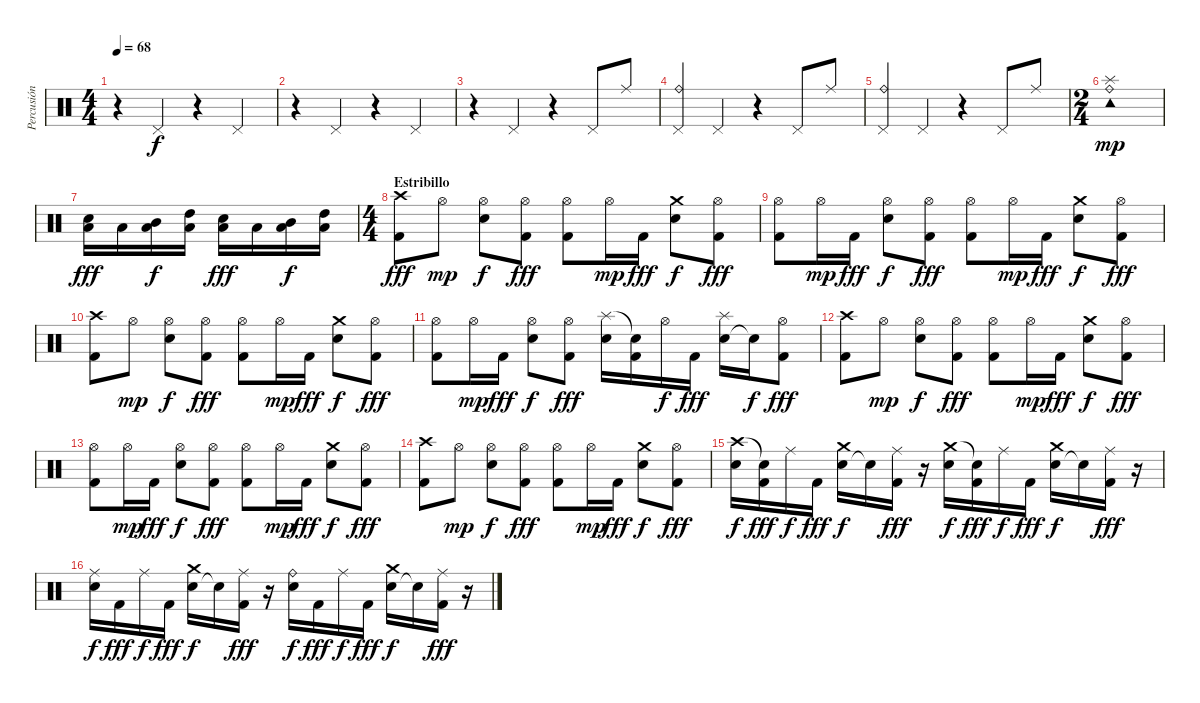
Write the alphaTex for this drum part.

\track ("Percusión" "Percusión") {instrument percussion}
\staff {score}
\articulation defaults
\ts (4 4)
\tempo 68
\clef neutral
\ks c
r.4{dy f} "Pedal Hi-Hat (hit)".4 r.4 "Pedal Hi-Hat (hit)".4 |
r.4 "Pedal Hi-Hat (hit)".4 r.4 "Pedal Hi-Hat (hit)".4 |
r.4 "Pedal Hi-Hat (hit)".4 r.4 "Pedal Hi-Hat (hit)".8 "Ride (middle)".8 |
("Pedal Hi-Hat (hit)" "Ride (bell)").4 "Pedal Hi-Hat (hit)".4 r.4 "Pedal Hi-Hat (hit)".8 "Ride (middle)".8 |
("Pedal Hi-Hat (hit)" "Ride (bell)").4 "Pedal Hi-Hat (hit)".4 r.4 "Pedal Hi-Hat (hit)".8 "Ride (middle)".8 |
\ts (2 4)
("Ride (bell)" "Tambourine (hit)" "Splash (hit)").1{dy mp} |
("Snare (hit) 2" "Low Tom (hit)").16{dy fff} "Low Tom (hit)".16 ("Mid Tom (hit)" "Low Tom (hit)").16{dy f} ("High Tom (hit)" "Low Tom (hit)").16 ("Snare (hit) 2" "Low Tom (hit)").16{dy fff} "Low Tom (hit)".16 ("Mid Tom (hit)" "Low Tom (hit)").16{dy f} ("High Tom (hit)" "Low Tom (hit)").16 |
\ts (4 4)
\section ("" "Estribillo")
("Kick (hit) 2" "Crash high (hit)").8{dy fff} "Hi-Hat (open)".8{dy mp} ("Hi-Hat (open)" "Snare (hit) 2").8{dy f} ("Hi-Hat (open)" "Kick (hit) 2").8{dy fff} ("Hi-Hat (open)" "Kick (hit) 2").8 "Hi-Hat (open)".16{dy mp} "Kick (hit) 2".16{dy fff} ("Snare (hit) 2" "Crash medium (hit)").8{dy f} ("Hi-Hat (open)" "Kick (hit) 2").8{dy fff} |
("Hi-Hat (open)" "Kick (hit) 2").8 "Hi-Hat (open)".16{dy mp} "Kick (hit) 2".16{dy fff} ("Hi-Hat (open)" "Snare (hit) 2").8{dy f} ("Hi-Hat (open)" "Kick (hit) 2").8{dy fff} ("Hi-Hat (open)" "Kick (hit) 2").8 "Hi-Hat (open)".16{dy mp} "Kick (hit) 2".16{dy fff} ("Snare (hit) 2" "Crash medium (hit)").8{dy f} ("Hi-Hat (open)" "Kick (hit) 2").8{dy fff} |
("Kick (hit) 2" "Crash high (hit)").8 "Hi-Hat (open)".8{dy mp} ("Hi-Hat (open)" "Snare (hit) 2").8{dy f} ("Hi-Hat (open)" "Kick (hit) 2").8{dy fff} ("Hi-Hat (open)" "Kick (hit) 2").8 "Hi-Hat (open)".16{dy mp} "Kick (hit) 2".16{dy fff} ("Snare (hit) 2" "Crash medium (hit)").8{dy f} ("Hi-Hat (open)" "Kick (hit) 2").8{dy fff} |
("Hi-Hat (open)" "Kick (hit) 2").8 "Hi-Hat (open)".16{dy mp} "Kick (hit) 2".16{dy fff} ("Hi-Hat (open)" "Snare (hit) 2").8{dy f} ("Hi-Hat (open)" "Kick (hit) 2").8{dy fff} ("Snare (hit) 2" "Splash (hit)").16 ("Kick (hit) 2" "Snare (hit)"{t}).16 "Hi-Hat (open)".16{dy f} "Kick (hit) 2".16{dy fff} ("Snare (hit) 2" "Splash (hit)").16 "Snare (hit)"{t}.16{dy f} ("Hi-Hat (open)" "Kick (hit) 2").8{dy fff} |
("Kick (hit) 2" "Crash high (hit)").8 "Hi-Hat (open)".8{dy mp} ("Hi-Hat (open)" "Snare (hit) 2").8{dy f} ("Hi-Hat (open)" "Kick (hit) 2").8{dy fff} ("Hi-Hat (open)" "Kick (hit) 2").8 "Hi-Hat (open)".16{dy mp} "Kick (hit) 2".16{dy fff} ("Snare (hit) 2" "Crash medium (hit)").8{dy f} ("Hi-Hat (open)" "Kick (hit) 2").8{dy fff} |
("Hi-Hat (open)" "Kick (hit) 2").8 "Hi-Hat (open)".16{dy mp} "Kick (hit) 2".16{dy fff} ("Hi-Hat (open)" "Snare (hit) 2").8{dy f} ("Hi-Hat (open)" "Kick (hit) 2").8{dy fff} ("Hi-Hat (open)" "Kick (hit) 2").8 "Hi-Hat (open)".16{dy mp} "Kick (hit) 2".16{dy fff} ("Snare (hit) 2" "Crash medium (hit)").8{dy f} ("Hi-Hat (open)" "Kick (hit) 2").8{dy fff} |
("Kick (hit) 2" "Crash high (hit)").8 "Hi-Hat (open)".8{dy mp} ("Hi-Hat (open)" "Snare (hit) 2").8{dy f} ("Hi-Hat (open)" "Kick (hit) 2").8{dy fff} ("Hi-Hat (open)" "Kick (hit) 2").8 "Hi-Hat (open)".16{dy mp} "Kick (hit) 2".16{dy fff} ("Snare (hit) 2" "Crash medium (hit)").8{dy f} ("Hi-Hat (open)" "Kick (hit) 2").8{dy fff} |
("Snare (hit) 2" "Crash high (hit)").16{dy f} ("Kick (hit) 2" "Snare (hit)"{t}).16{dy fff} "Ride (middle)".16{dy f} "Kick (hit) 2".16{dy fff} ("Snare (hit) 2" "Crash medium (hit)").16{dy f} "Snare (hit)"{t}.16 ("Ride (middle)" "Kick (hit) 2").16{dy fff} r.16 ("Snare (hit) 2" "Crash medium (hit)").16{dy f} ("Kick (hit) 2" "Snare (hit)"{t}).16{dy fff} "Ride (middle)".16{dy f} "Kick (hit) 2".16{dy fff} ("Snare (hit) 2" "Crash medium (hit)").16{dy f} "Snare (hit)"{t}.16 ("Ride (middle)" "Kick (hit) 2").16{dy fff} r.16 |
("Ride (middle)" "Snare (hit) 2").16{dy f} "Kick (hit) 2".16{dy fff} "Ride (middle)".16{dy f} "Kick (hit) 2".16{dy fff} ("Snare (hit) 2" "Crash medium (hit)").16{dy f} "Snare (hit)"{t}.16 ("Ride (middle)" "Kick (hit) 2").16{dy fff} r.16 ("Ride (bell)" "Snare (hit) 2").16{dy f} "Kick (hit) 2".16{dy fff} "Ride (middle)".16{dy f} "Kick (hit) 2".16{dy fff} ("Snare (hit) 2" "Crash medium (hit)").16{dy f} "Snare (hit)"{t}.16 ("Ride (middle)" "Kick (hit) 2").16{dy fff} r.16
